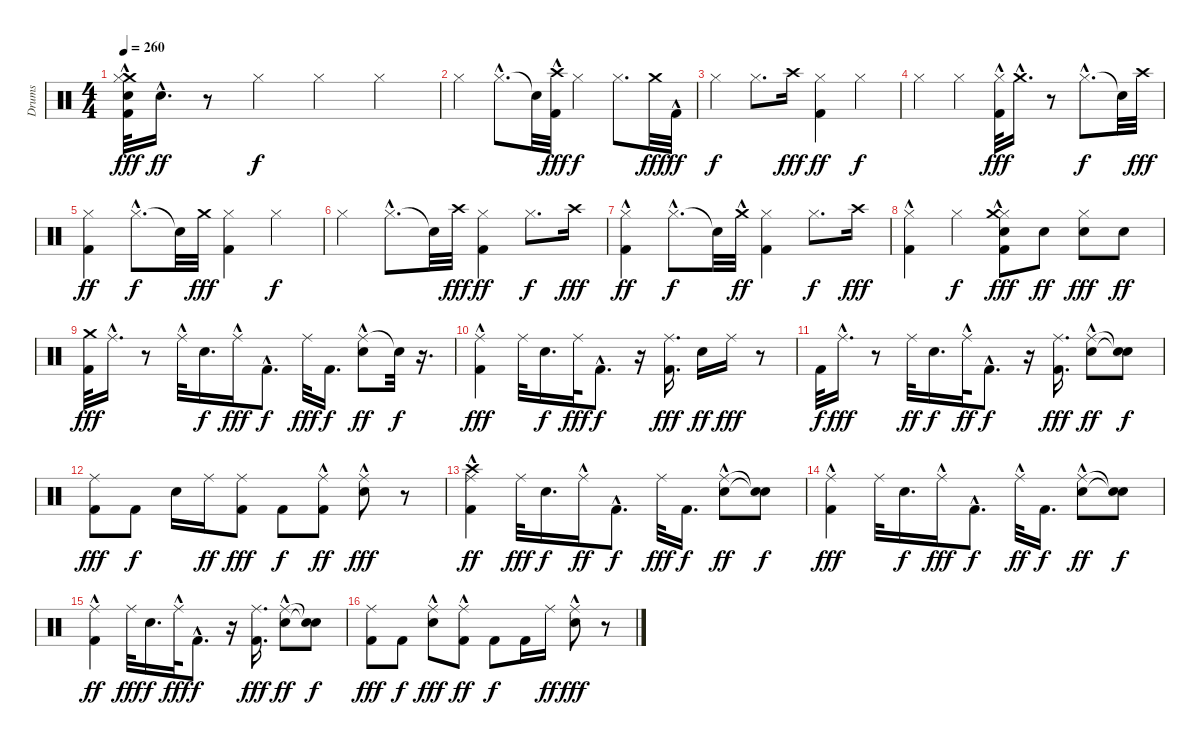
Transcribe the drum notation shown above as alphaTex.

\track ("Drums" "Drums") {instrument percussion}
\staff {score}
\articulation defaults
\ts (4 4)
\tempo 260
\clef neutral
\ks c
("Crash medium (hit)" "Hi-Hat (closed)" "Kick (hit) 2"{hac} "Electric Snare (hit)"{hac}).32{dy fff} "Snare (hit) 2"{hac}.16{d dy ff} r.8 "Hi-Hat (closed)".4{dy f} "Hi-Hat (closed)".4 "Hi-Hat (closed)".4 |
"Hi-Hat (closed)".4 "Hi-Hat (closed)"{hac}.8{d} "Snare (hit)"{t}.32 ("Crash high (hit)" "Kick (hit) 2"{hac}).32{dy fff} "Hi-Hat (closed)".4{dy f} "Hi-Hat (closed)".8{d} "Crash medium (hit)".32{dy fff} "Kick (hit) 2"{hac}.32{dy ff} |
"Hi-Hat (closed)".4{dy f} "Hi-Hat (closed)".8{d} "Crash high (hit)".16{dy fff} ("Kick (hit) 2" "Hi-Hat (closed)").4{dy ff} "Hi-Hat (closed)".4{dy f} |
"Hi-Hat (closed)".4 "Hi-Hat (closed)".4 ("Kick (hit) 2"{hac} "Hi-Hat (closed)").32{dy fff} "Crash medium (hit)"{hac}.16{d} r.8 "Hi-Hat (closed)"{hac}.8{d dy f} "Snare (hit)"{t}.32 "Crash high (hit)".32{dy fff} |
("Kick (hit) 2" "Hi-Hat (closed)").4{dy ff} "Hi-Hat (closed)"{hac}.8{d dy f} "Snare (hit)"{t}.32 "Crash medium (hit)".32{dy fff} ("Kick (hit) 2" "Hi-Hat (closed)").4 "Hi-Hat (closed)".4{dy f} |
"Hi-Hat (closed)".4 "Hi-Hat (closed)"{hac}.8{d} "Snare (hit)"{t}.32 "Crash high (hit)".32{dy fff} ("Kick (hit) 2" "Hi-Hat (closed)").4{dy ff} "Hi-Hat (closed)".8{d dy f} "Crash high (hit)".16{dy fff} |
("Hi-Hat (closed)" "Kick (hit) 2"{hac}).4{dy ff} "Hi-Hat (closed)"{hac}.8{d dy f} "Snare (hit)"{t}.32 "Crash medium (hit)"{hac}.32{dy ff} ("Kick (hit) 2" "Hi-Hat (closed)").4 "Hi-Hat (closed)".8{d dy f} "Crash high (hit)".16{dy fff} |
("Hi-Hat (closed)" "Kick (hit) 2"{hac}).4 "Hi-Hat (closed)".4{dy f} ("Hi-Hat (closed)" "Electric Snare (hit)" "Kick (hit) 2"{hac} "Crash medium (hit)"{hac}).8{dy fff} "Electric Snare (hit)".8{dy ff} ("Hi-Hat (closed)" "Electric Snare (hit)").8{dy fff} "Electric Snare (hit)".8{dy ff} |
("Kick (hit) 2" "Crash medium (hit)").32{dy fff} "Ride (middle)"{hac}.16{d} r.8 "Ride (middle)"{hac}.32 "Snare (hit) 2".16{d dy f} "Ride (middle)"{hac}.16{dy fff} "Kick (hit) 2"{hac}.8{d dy f} "Ride (middle)".32{dy fff} "Kick (hit) 2".16{d dy f} ("Ride (middle)"{hac} "Snare (hit) 2").8{dy ff} "Snare (hit)"{t}.32{dy f} r.16{d} |
("Ride (middle)"{hac} "Kick (hit) 2").4{dy fff} "Ride (middle)".32 "Snare (hit) 2".16{d dy f} "Ride (middle)".32{dy fff} "Kick (hit) 2"{hac}.8{d dy f} r.16 ("Ride (middle)" "Kick (hit) 2").16{d dy fff} "Snare (hit) 2".16{dy ff} "Ride (middle)".16{dy fff} r.8 |
"Kick (hit) 2".32{dy f} "Ride (middle)"{hac}.16{d dy fff} r.8 "Ride (middle)".32{dy ff} "Snare (hit) 2".16{d dy f} "Ride (middle)"{hac}.32{dy ff} "Kick (hit) 2"{hac}.8{d dy f} r.16 ("Ride (middle)" "Kick (hit) 2").16{d dy fff} ("Ride (middle)"{hac} "Snare (hit) 2").8{dy ff} ("Snare (hit)"{t} "Snare (hit)"{t}).8{dy f} |
("Kick (hit) 2" "Ride (middle)").8{dy fff} "Kick (hit) 2".8{dy f} "Snare (hit) 2".16 "Ride (middle)".16{dy ff} ("Kick (hit) 2" "Ride (middle)").8{dy fff} "Kick (hit) 2".8{dy f} ("Kick (hit) 2" "Ride (middle)"{hac}).8{dy ff} ("Ride (middle)"{hac} "Snare (hit) 2").8{dy fff} r.8 |
("Crash high (hit)" "Kick (hit) 2" "Ride (middle)"{hac}).4{dy ff} "Ride (middle)".32{dy fff} "Snare (hit) 2".16{d dy f} "Ride (middle)"{hac}.16{dy ff} "Kick (hit) 2"{hac}.8{d dy f} "Ride (middle)".32{dy fff} "Kick (hit) 2".16{d dy f} ("Ride (middle)"{hac} "Snare (hit) 2").8{dy ff} ("Snare (hit)"{t} "Snare (hit)"{t}).8{dy f} |
("Ride (middle)"{hac} "Kick (hit) 2").4{dy fff} "Ride (middle)".32 "Snare (hit) 2".16{d dy f} "Ride (middle)"{hac}.16{dy fff} "Kick (hit) 2"{hac}.8{d dy f} "Ride (middle)"{hac}.32{dy ff} "Kick (hit) 2".16{d dy f} ("Ride (middle)"{hac} "Snare (hit) 2").8{dy ff} ("Snare (hit)"{t} "Snare (hit)"{t}).8{dy f} |
("Kick (hit) 2" "Ride (middle)"{hac}).4{dy ff} "Ride (middle)".32{dy fff} "Snare (hit) 2".16{d dy f} "Ride (middle)"{hac}.32{dy fff} "Kick (hit) 2"{hac}.8{d dy f} r.16 ("Ride (middle)" "Kick (hit) 2").16{d dy fff} ("Ride (middle)"{hac} "Snare (hit) 2").8{dy ff} ("Snare (hit)"{t} "Snare (hit)"{t}).8{dy f} |
("Ride (middle)" "Kick (hit) 2").8{dy fff} "Kick (hit) 2".8{dy f} ("Ride (middle)"{hac} "Snare (hit) 2").8{dy fff} ("Kick (hit) 2" "Ride (middle)"{hac}).8{dy ff} "Kick (hit) 2".8{dy f} "Kick (hit) 2".16 "Ride (middle)".16{dy ff} ("Snare (hit) 2" "Ride (middle)"{hac}).8{dy fff} r.8
